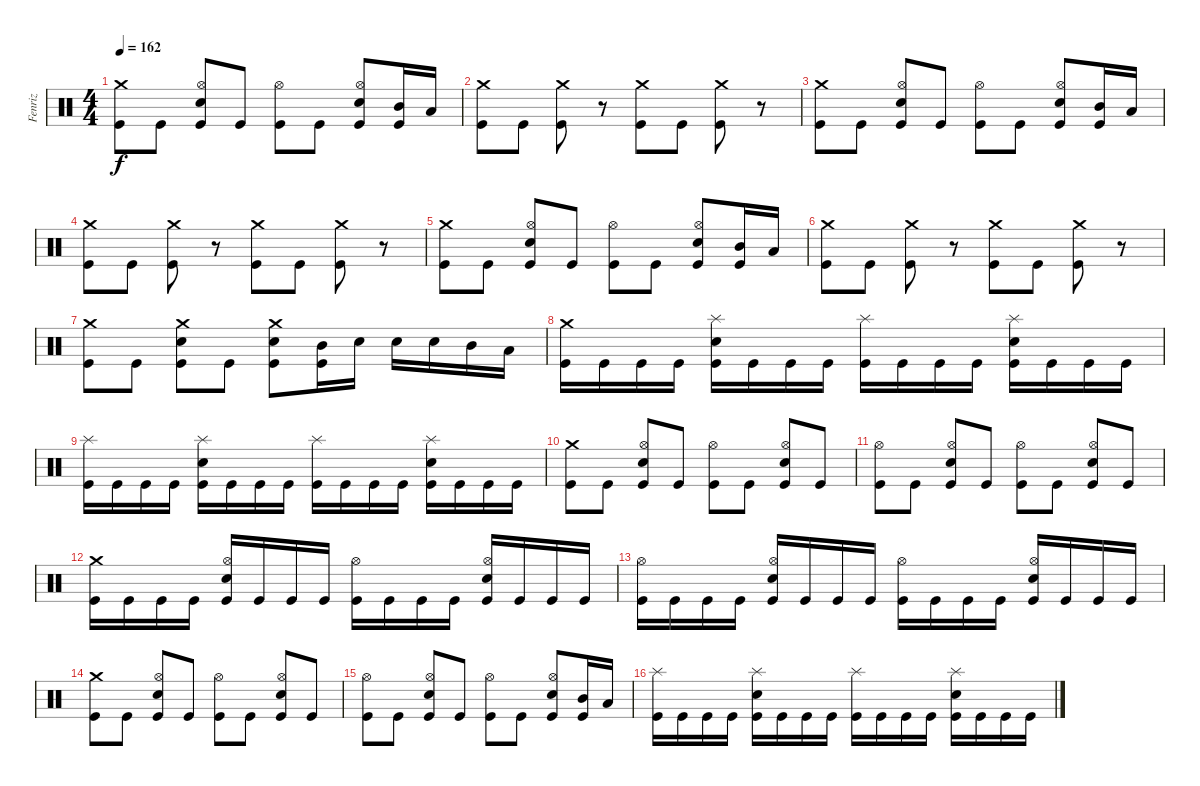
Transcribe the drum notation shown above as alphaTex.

\track ("Fenriz" "Fenriz") {instrument percussion}
\staff {score}
\articulation defaults
\ts (4 4)
\tempo 162
\clef neutral
\ks c
("Crash medium (hit)" "Kick (hit)").8{dy f} "Kick (hit)".8 ("Hi-Hat (open)" "Electric Snare (hit)" "Kick (hit)").8 "Kick (hit)".8 ("Hi-Hat (open)" "Kick (hit)").8 "Kick (hit)".8 ("Hi-Hat (open)" "Electric Snare (hit)" "Kick (hit)").8 ("Mid Tom (hit)" "Kick (hit)").16 "Low Tom (hit)".16 |
("Crash medium (hit)" "Kick (hit)").8 "Kick (hit)".8 ("Crash medium (hit)" "Kick (hit)").8 r.8 ("Crash medium (hit)" "Kick (hit)").8 "Kick (hit)".8 ("Crash medium (hit)" "Kick (hit)").8 r.8 |
("Crash medium (hit)" "Kick (hit)").8 "Kick (hit)".8 ("Hi-Hat (open)" "Electric Snare (hit)" "Kick (hit)").8 "Kick (hit)".8 ("Hi-Hat (open)" "Kick (hit)").8 "Kick (hit)".8 ("Hi-Hat (open)" "Electric Snare (hit)" "Kick (hit)").8 ("Mid Tom (hit)" "Kick (hit)").16 "Low Tom (hit)".16 |
("Crash medium (hit)" "Kick (hit)").8 "Kick (hit)".8 ("Crash medium (hit)" "Kick (hit)").8 r.8 ("Crash medium (hit)" "Kick (hit)").8 "Kick (hit)".8 ("Crash medium (hit)" "Kick (hit)").8 r.8 |
("Crash medium (hit)" "Kick (hit)").8 "Kick (hit)".8 ("Hi-Hat (open)" "Electric Snare (hit)" "Kick (hit)").8 "Kick (hit)".8 ("Hi-Hat (open)" "Kick (hit)").8 "Kick (hit)".8 ("Hi-Hat (open)" "Electric Snare (hit)" "Kick (hit)").8 ("Mid Tom (hit)" "Kick (hit)").16 "Low Tom (hit)".16 |
("Crash medium (hit)" "Kick (hit)").8 "Kick (hit)".8 ("Crash medium (hit)" "Kick (hit)").8 r.8 ("Crash medium (hit)" "Kick (hit)").8 "Kick (hit)".8 ("Crash medium (hit)" "Kick (hit)").8 r.8 |
("Crash medium (hit)" "Kick (hit)").8 "Kick (hit)".8 ("Crash medium (hit)" "Electric Snare (hit)" "Kick (hit)").8 "Kick (hit)".8 ("Crash medium (hit)" "Electric Snare (hit)" "Kick (hit)").8 ("Mid Tom (hit)" "Kick (hit)").16 "Electric Snare (hit)".16 "Electric Snare (hit)".16 "Electric Snare (hit)".16 "Mid Tom (hit)".16 "Low Tom (hit)".16 |
("Crash medium (hit)" "Kick (hit)").16 "Kick (hit)".16 "Kick (hit)".16 "Kick (hit)".16 ("Splash (hit)" "Electric Snare (hit)" "Kick (hit)").16 "Kick (hit)".16 "Kick (hit)".16 "Kick (hit)".16 ("Splash (hit)" "Kick (hit)").16 "Kick (hit)".16 "Kick (hit)".16 "Kick (hit)".16 ("Splash (hit)" "Electric Snare (hit)" "Kick (hit)").16 "Kick (hit)".16 "Kick (hit)".16 "Kick (hit)".16 |
("Splash (hit)" "Kick (hit)").16 "Kick (hit)".16 "Kick (hit)".16 "Kick (hit)".16 ("Splash (hit)" "Electric Snare (hit)" "Kick (hit)").16 "Kick (hit)".16 "Kick (hit)".16 "Kick (hit)".16 ("Splash (hit)" "Kick (hit)").16 "Kick (hit)".16 "Kick (hit)".16 "Kick (hit)".16 ("Splash (hit)" "Electric Snare (hit)" "Kick (hit)").16 "Kick (hit)".16 "Kick (hit)".16 "Kick (hit)".16 |
("Crash medium (hit)" "Kick (hit)").8 "Kick (hit)".8 ("Hi-Hat (open)" "Electric Snare (hit)" "Kick (hit)").8 "Kick (hit)".8 ("Hi-Hat (open)" "Kick (hit)").8 "Kick (hit)".8 ("Hi-Hat (open)" "Electric Snare (hit)" "Kick (hit)").8 "Kick (hit)".8 |
("Hi-Hat (open)" "Kick (hit)").8 "Kick (hit)".8 ("Hi-Hat (open)" "Electric Snare (hit)" "Kick (hit)").8 "Kick (hit)".8 ("Hi-Hat (open)" "Kick (hit)").8 "Kick (hit)".8 ("Hi-Hat (open)" "Electric Snare (hit)" "Kick (hit)").8 "Kick (hit)".8 |
("Crash medium (hit)" "Kick (hit)").16 "Kick (hit)".16 "Kick (hit)".16 "Kick (hit)".16 ("Hi-Hat (open)" "Electric Snare (hit)" "Kick (hit)").16 "Kick (hit)".16 "Kick (hit)".16 "Kick (hit)".16 ("Hi-Hat (open)" "Kick (hit)").16 "Kick (hit)".16 "Kick (hit)".16 "Kick (hit)".16 ("Hi-Hat (open)" "Electric Snare (hit)" "Kick (hit)").16 "Kick (hit)".16 "Kick (hit)".16 "Kick (hit)".16 |
("Hi-Hat (open)" "Kick (hit)").16 "Kick (hit)".16 "Kick (hit)".16 "Kick (hit)".16 ("Hi-Hat (open)" "Electric Snare (hit)" "Kick (hit)").16 "Kick (hit)".16 "Kick (hit)".16 "Kick (hit)".16 ("Hi-Hat (open)" "Kick (hit)").16 "Kick (hit)".16 "Kick (hit)".16 "Kick (hit)".16 ("Hi-Hat (open)" "Electric Snare (hit)" "Kick (hit)").16 "Kick (hit)".16 "Kick (hit)".16 "Kick (hit)".16 |
("Crash medium (hit)" "Kick (hit)").8 "Kick (hit)".8 ("Hi-Hat (open)" "Electric Snare (hit)" "Kick (hit)").8 "Kick (hit)".8 ("Hi-Hat (open)" "Kick (hit)").8 "Kick (hit)".8 ("Hi-Hat (open)" "Electric Snare (hit)" "Kick (hit)").8 "Kick (hit)".8 |
("Hi-Hat (open)" "Kick (hit)").8 "Kick (hit)".8 ("Hi-Hat (open)" "Electric Snare (hit)" "Kick (hit)").8 "Kick (hit)".8 ("Hi-Hat (open)" "Kick (hit)").8 "Kick (hit)".8 ("Hi-Hat (open)" "Electric Snare (hit)" "Kick (hit)").8 ("Mid Tom (hit)" "Kick (hit)").16 "Low Tom (hit)".16 |
("Splash (hit)" "Kick (hit)").16 "Kick (hit)".16 "Kick (hit)".16 "Kick (hit)".16 ("Splash (hit)" "Electric Snare (hit)" "Kick (hit)").16 "Kick (hit)".16 "Kick (hit)".16 "Kick (hit)".16 ("Splash (hit)" "Kick (hit)").16 "Kick (hit)".16 "Kick (hit)".16 "Kick (hit)".16 ("Splash (hit)" "Electric Snare (hit)" "Kick (hit)").16 "Kick (hit)".16 "Kick (hit)".16 "Kick (hit)".16
